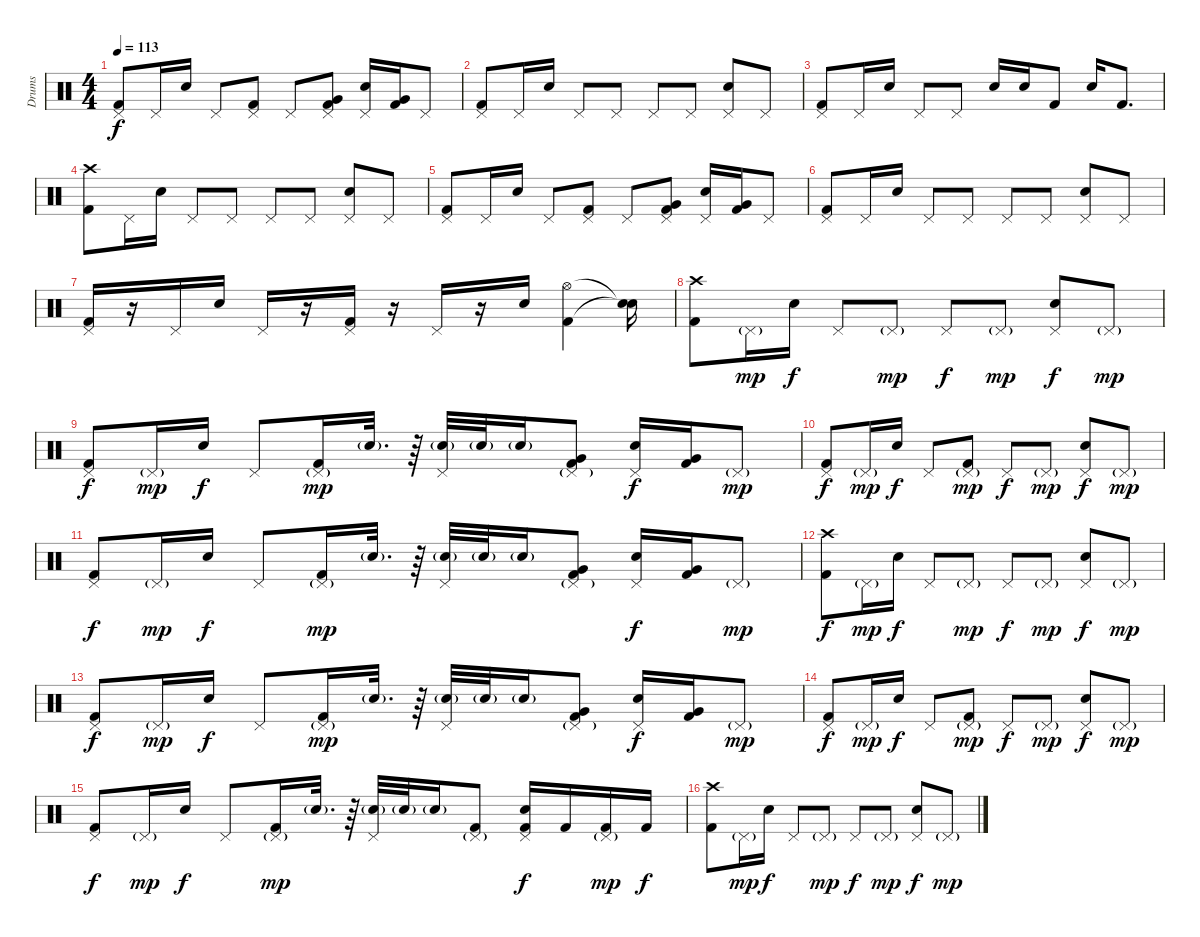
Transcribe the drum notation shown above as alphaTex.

\track ("Drums" "Drums") {instrument percussion}
\staff {score}
\articulation defaults
\ts (4 4)
\tempo 113
\clef neutral
\ks c
("Pedal Hi-Hat (hit)" "Kick (hit) 2").8{dy f} "Pedal Hi-Hat (hit)".16 "Snare (hit) 2".16 "Pedal Hi-Hat (hit)".8 ("Pedal Hi-Hat (hit)" "Kick (hit) 2").8 "Pedal Hi-Hat (hit)".8 ("Pedal Hi-Hat (hit)" "Very Low Tom (hit)" "Kick (hit) 2").8 ("Pedal Hi-Hat (hit)" "Snare (hit) 2").16 ("Very Low Tom (hit)" "Kick (hit) 2").16 "Pedal Hi-Hat (hit)".8 |
("Pedal Hi-Hat (hit)" "Kick (hit) 2").8 "Pedal Hi-Hat (hit)".16 "Snare (hit) 2".16 "Pedal Hi-Hat (hit)".8 "Pedal Hi-Hat (hit)".8 "Pedal Hi-Hat (hit)".8 "Pedal Hi-Hat (hit)".8 ("Pedal Hi-Hat (hit)" "Snare (hit) 2").8 "Pedal Hi-Hat (hit)".8 |
("Pedal Hi-Hat (hit)" "Kick (hit) 2").8 "Pedal Hi-Hat (hit)".16 "Snare (hit) 2".16 "Pedal Hi-Hat (hit)".8 "Pedal Hi-Hat (hit)".8 "Snare (hit) 2".16 "Snare (hit) 2".16 "Kick (hit) 2".8 "Snare (hit) 2".16 "Kick (hit) 2".8{d} |
("Crash high (hit)" "Kick (hit) 2").8 "Pedal Hi-Hat (hit)".16 "Snare (hit) 2".16 "Pedal Hi-Hat (hit)".8 "Pedal Hi-Hat (hit)".8 "Pedal Hi-Hat (hit)".8 "Pedal Hi-Hat (hit)".8 ("Pedal Hi-Hat (hit)" "Snare (hit) 2").8 "Pedal Hi-Hat (hit)".8 |
("Pedal Hi-Hat (hit)" "Kick (hit) 2").8 "Pedal Hi-Hat (hit)".16 "Snare (hit) 2".16 "Pedal Hi-Hat (hit)".8 ("Pedal Hi-Hat (hit)" "Kick (hit) 2").8 "Pedal Hi-Hat (hit)".8 ("Pedal Hi-Hat (hit)" "Very Low Tom (hit)" "Kick (hit) 2").8 ("Pedal Hi-Hat (hit)" "Snare (hit) 2").16 ("Very Low Tom (hit)" "Kick (hit) 2").16 "Pedal Hi-Hat (hit)".8 |
("Pedal Hi-Hat (hit)" "Kick (hit) 2").8 "Pedal Hi-Hat (hit)".16 "Snare (hit) 2".16 "Pedal Hi-Hat (hit)".8 "Pedal Hi-Hat (hit)".8 "Pedal Hi-Hat (hit)".8 "Pedal Hi-Hat (hit)".8 ("Pedal Hi-Hat (hit)" "Snare (hit) 2").8 "Pedal Hi-Hat (hit)".8 |
("Pedal Hi-Hat (hit)" "Kick (hit) 2").16 r.16 "Pedal Hi-Hat (hit)".16 "Snare (hit) 2".16 "Pedal Hi-Hat (hit)".16 r.16 ("Pedal Hi-Hat (hit)" "Kick (hit) 2").16 r.16 "Pedal Hi-Hat (hit)".16 r.16 "Snare (hit) 2".16 ("Hi-Hat (open)" "Kick (hit) 2").4 ("Snare (hit)"{t} "Snare (hit)"{t}).16 |
("Crash high (hit)" "Kick (hit) 2").8 "Pedal Hi-Hat (hit)"{g}.16{dy mp} "Snare (hit) 2".16{dy f} "Pedal Hi-Hat (hit)".8 "Pedal Hi-Hat (hit)"{g}.8{dy mp} "Pedal Hi-Hat (hit)".8{dy f} "Pedal Hi-Hat (hit)"{g}.8{dy mp} ("Pedal Hi-Hat (hit)" "Snare (hit) 2").8{dy f} "Pedal Hi-Hat (hit)"{g}.8{dy mp} |
("Pedal Hi-Hat (hit)" "Kick (hit) 2").8{dy f} "Pedal Hi-Hat (hit)"{g}.16{dy mp} "Snare (hit) 2".16{dy f} "Pedal Hi-Hat (hit)".8 ("Pedal Hi-Hat (hit)"{g} "Kick (hit) 2").16{dy mp} "Snare (hit) 2"{g}.32{d} r.64 ("Pedal Hi-Hat (hit)" "Snare (hit) 2"{g}).32 "Snare (hit) 2"{g}.32 "Snare (hit) 2"{g}.16 ("Pedal Hi-Hat (hit)"{g} "Very Low Tom (hit)" "Kick (hit) 2").8 ("Pedal Hi-Hat (hit)" "Snare (hit) 2").16{dy f} ("Very Low Tom (hit)" "Kick (hit) 2").16 "Pedal Hi-Hat (hit)"{g}.8{dy mp} |
("Pedal Hi-Hat (hit)" "Kick (hit) 2").8{dy f} "Pedal Hi-Hat (hit)"{g}.16{dy mp} "Snare (hit) 2".16{dy f} "Pedal Hi-Hat (hit)".8 ("Pedal Hi-Hat (hit)"{g} "Kick (hit) 2").8{dy mp} "Pedal Hi-Hat (hit)".8{dy f} "Pedal Hi-Hat (hit)"{g}.8{dy mp} ("Pedal Hi-Hat (hit)" "Snare (hit) 2").8{dy f} "Pedal Hi-Hat (hit)"{g}.8{dy mp} |
("Pedal Hi-Hat (hit)" "Kick (hit) 2").8{dy f} "Pedal Hi-Hat (hit)"{g}.16{dy mp} "Snare (hit) 2".16{dy f} "Pedal Hi-Hat (hit)".8 ("Pedal Hi-Hat (hit)"{g} "Kick (hit) 2").16{dy mp} "Snare (hit) 2"{g}.32{d} r.64 ("Pedal Hi-Hat (hit)" "Snare (hit) 2"{g}).32 "Snare (hit) 2"{g}.32 "Snare (hit) 2"{g}.16 ("Pedal Hi-Hat (hit)"{g} "Very Low Tom (hit)" "Kick (hit) 2").8 ("Pedal Hi-Hat (hit)" "Snare (hit) 2").16{dy f} ("Very Low Tom (hit)" "Kick (hit) 2").16 "Pedal Hi-Hat (hit)"{g}.8{dy mp} |
("Crash high (hit)" "Kick (hit) 2").8{dy f} "Pedal Hi-Hat (hit)"{g}.16{dy mp} "Snare (hit) 2".16{dy f} "Pedal Hi-Hat (hit)".8 "Pedal Hi-Hat (hit)"{g}.8{dy mp} "Pedal Hi-Hat (hit)".8{dy f} "Pedal Hi-Hat (hit)"{g}.8{dy mp} ("Pedal Hi-Hat (hit)" "Snare (hit) 2").8{dy f} "Pedal Hi-Hat (hit)"{g}.8{dy mp} |
("Pedal Hi-Hat (hit)" "Kick (hit) 2").8{dy f} "Pedal Hi-Hat (hit)"{g}.16{dy mp} "Snare (hit) 2".16{dy f} "Pedal Hi-Hat (hit)".8 ("Pedal Hi-Hat (hit)"{g} "Kick (hit) 2").16{dy mp} "Snare (hit) 2"{g}.32{d} r.64 ("Pedal Hi-Hat (hit)" "Snare (hit) 2"{g}).32 "Snare (hit) 2"{g}.32 "Snare (hit) 2"{g}.16 ("Pedal Hi-Hat (hit)"{g} "Very Low Tom (hit)" "Kick (hit) 2").8 ("Pedal Hi-Hat (hit)" "Snare (hit) 2").16{dy f} ("Very Low Tom (hit)" "Kick (hit) 2").16 "Pedal Hi-Hat (hit)"{g}.8{dy mp} |
("Pedal Hi-Hat (hit)" "Kick (hit) 2").8{dy f} "Pedal Hi-Hat (hit)"{g}.16{dy mp} "Snare (hit) 2".16{dy f} "Pedal Hi-Hat (hit)".8 ("Pedal Hi-Hat (hit)"{g} "Kick (hit) 2").8{dy mp} "Pedal Hi-Hat (hit)".8{dy f} "Pedal Hi-Hat (hit)"{g}.8{dy mp} ("Pedal Hi-Hat (hit)" "Snare (hit) 2").8{dy f} "Pedal Hi-Hat (hit)"{g}.8{dy mp} |
("Pedal Hi-Hat (hit)" "Kick (hit) 2").8{dy f} "Pedal Hi-Hat (hit)"{g}.16{dy mp} "Snare (hit) 2".16{dy f} "Pedal Hi-Hat (hit)".8 ("Pedal Hi-Hat (hit)"{g} "Kick (hit) 2").16{dy mp} "Snare (hit) 2"{g}.32{d} r.64 ("Pedal Hi-Hat (hit)" "Snare (hit) 2"{g}).32 "Snare (hit) 2"{g}.32 "Snare (hit) 2"{g}.16 ("Pedal Hi-Hat (hit)"{g} "Kick (hit) 2").8 ("Pedal Hi-Hat (hit)" "Snare (hit) 2" "Kick (hit) 2").16{dy f} "Kick (hit) 2".16 ("Pedal Hi-Hat (hit)"{g} "Kick (hit) 2").16{dy mp} "Kick (hit) 2".16{dy f} |
("Crash high (hit)" "Kick (hit) 2").8 "Pedal Hi-Hat (hit)"{g}.16{dy mp} "Snare (hit) 2".16{dy f} "Pedal Hi-Hat (hit)".8 "Pedal Hi-Hat (hit)"{g}.8{dy mp} "Pedal Hi-Hat (hit)".8{dy f} "Pedal Hi-Hat (hit)"{g}.8{dy mp} ("Pedal Hi-Hat (hit)" "Snare (hit) 2").8{dy f} "Pedal Hi-Hat (hit)"{g}.8{dy mp}
